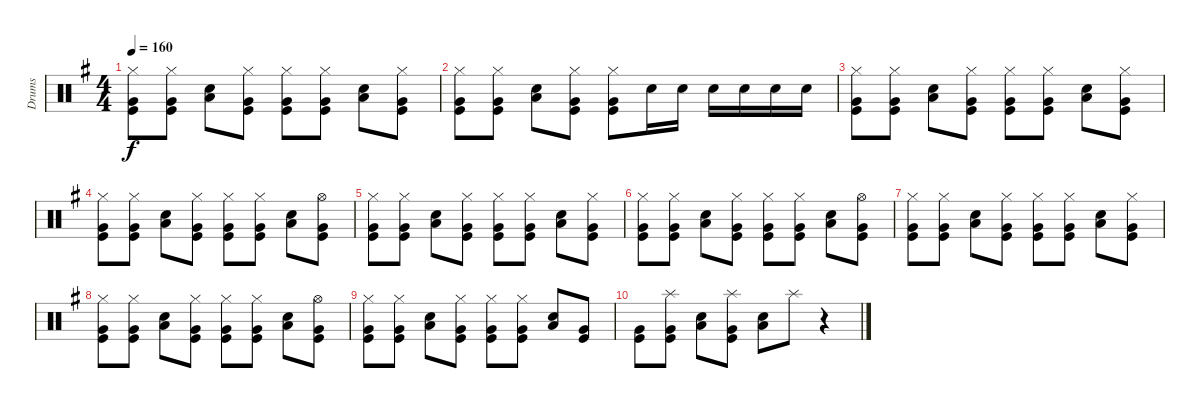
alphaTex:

\track ("Drums" "Drums") {instrument percussion}
\staff {score}
\articulation defaults
\ts (4 4)
\tempo 160
\clef neutral
\ks g
("Hi-Hat (closed)" "Very Low Tom (hit)" "Kick (hit)").8{dy f} ("Hi-Hat (closed)" "Very Low Tom (hit)" "Kick (hit)").8 ("Snare (hit) 2" "Low Tom (hit)").8 ("Hi-Hat (closed)" "Very Low Tom (hit)" "Kick (hit)").8 ("Hi-Hat (closed)" "Very Low Tom (hit)" "Kick (hit)").8 ("Hi-Hat (closed)" "Very Low Tom (hit)" "Kick (hit)").8 ("Snare (hit) 2" "Low Tom (hit)").8 ("Hi-Hat (closed)" "Very Low Tom (hit)" "Kick (hit)").8 |
("Hi-Hat (closed)" "Very Low Tom (hit)" "Kick (hit)").8 ("Hi-Hat (closed)" "Very Low Tom (hit)" "Kick (hit)").8 ("Snare (hit) 2" "Low Tom (hit)").8 ("Hi-Hat (closed)" "Very Low Tom (hit)" "Kick (hit)").8 ("Hi-Hat (closed)" "Very Low Tom (hit)" "Kick (hit)").8 "Snare (hit) 2".16 "Snare (hit) 2".16 "Snare (hit) 2".16 "Snare (hit) 2".16 "Snare (hit) 2".16 "Snare (hit) 2".16 |
("Hi-Hat (closed)" "Very Low Tom (hit)" "Kick (hit)").8 ("Hi-Hat (closed)" "Very Low Tom (hit)" "Kick (hit)").8 ("Snare (hit) 2" "Low Tom (hit)").8 ("Hi-Hat (closed)" "Very Low Tom (hit)" "Kick (hit)").8 ("Hi-Hat (closed)" "Very Low Tom (hit)" "Kick (hit)").8 ("Hi-Hat (closed)" "Very Low Tom (hit)" "Kick (hit)").8 ("Snare (hit) 2" "Low Tom (hit)").8 ("Hi-Hat (closed)" "Very Low Tom (hit)" "Kick (hit)").8 |
("Hi-Hat (closed)" "Very Low Tom (hit)" "Kick (hit)").8 ("Hi-Hat (closed)" "Very Low Tom (hit)" "Kick (hit)").8 ("Snare (hit) 2" "Low Tom (hit)").8 ("Hi-Hat (closed)" "Very Low Tom (hit)" "Kick (hit)").8 ("Hi-Hat (closed)" "Very Low Tom (hit)" "Kick (hit)").8 ("Hi-Hat (closed)" "Very Low Tom (hit)" "Kick (hit)").8 ("Snare (hit) 2" "Low Tom (hit)").8 ("Hi-Hat (open)" "Very Low Tom (hit)" "Kick (hit)").8 |
("Hi-Hat (closed)" "Very Low Tom (hit)" "Kick (hit)").8 ("Hi-Hat (closed)" "Very Low Tom (hit)" "Kick (hit)").8 ("Snare (hit) 2" "Low Tom (hit)").8 ("Hi-Hat (closed)" "Very Low Tom (hit)" "Kick (hit)").8 ("Hi-Hat (closed)" "Very Low Tom (hit)" "Kick (hit)").8 ("Hi-Hat (closed)" "Very Low Tom (hit)" "Kick (hit)").8 ("Snare (hit) 2" "Low Tom (hit)").8 ("Hi-Hat (closed)" "Very Low Tom (hit)" "Kick (hit)").8 |
("Hi-Hat (closed)" "Very Low Tom (hit)" "Kick (hit)").8 ("Hi-Hat (closed)" "Very Low Tom (hit)" "Kick (hit)").8 ("Snare (hit) 2" "Low Tom (hit)").8 ("Hi-Hat (closed)" "Very Low Tom (hit)" "Kick (hit)").8 ("Hi-Hat (closed)" "Very Low Tom (hit)" "Kick (hit)").8 ("Hi-Hat (closed)" "Very Low Tom (hit)" "Kick (hit)").8 ("Snare (hit) 2" "Low Tom (hit)").8 ("Hi-Hat (open)" "Very Low Tom (hit)" "Kick (hit)").8 |
("Hi-Hat (closed)" "Very Low Tom (hit)" "Kick (hit)").8 ("Hi-Hat (closed)" "Very Low Tom (hit)" "Kick (hit)").8 ("Snare (hit) 2" "Low Tom (hit)").8 ("Hi-Hat (closed)" "Very Low Tom (hit)" "Kick (hit)").8 ("Hi-Hat (closed)" "Very Low Tom (hit)" "Kick (hit)").8 ("Hi-Hat (closed)" "Very Low Tom (hit)" "Kick (hit)").8 ("Snare (hit) 2" "Low Tom (hit)").8 ("Hi-Hat (closed)" "Very Low Tom (hit)" "Kick (hit)").8 |
("Hi-Hat (closed)" "Very Low Tom (hit)" "Kick (hit)").8 ("Hi-Hat (closed)" "Very Low Tom (hit)" "Kick (hit)").8 ("Snare (hit) 2" "Low Tom (hit)").8 ("Hi-Hat (closed)" "Very Low Tom (hit)" "Kick (hit)").8 ("Hi-Hat (closed)" "Very Low Tom (hit)" "Kick (hit)").8 ("Hi-Hat (closed)" "Very Low Tom (hit)" "Kick (hit)").8 ("Snare (hit) 2" "Low Tom (hit)").8 ("Hi-Hat (open)" "Very Low Tom (hit)" "Kick (hit)").8 |
("Hi-Hat (closed)" "Very Low Tom (hit)" "Kick (hit)").8 ("Hi-Hat (closed)" "Very Low Tom (hit)" "Kick (hit)").8 ("Snare (hit) 2" "Low Tom (hit)").8 ("Hi-Hat (closed)" "Very Low Tom (hit)" "Kick (hit)").8 ("Hi-Hat (closed)" "Very Low Tom (hit)" "Kick (hit)").8 ("Hi-Hat (closed)" "Very Low Tom (hit)" "Kick (hit)").8 ("Snare (hit) 2" "Low Tom (hit)").8 ("Very Low Tom (hit)" "Kick (hit)").8 |
("Very Low Tom (hit)" "Kick (hit)").8 ("Splash (hit)" "Very Low Tom (hit)" "Kick (hit)").8 ("Snare (hit) 2" "Low Tom (hit)").8 ("Splash (hit)" "Very Low Tom (hit)" "Kick (hit)").8 ("Snare (hit) 2" "Low Tom (hit)").8 "Splash (hit)".8 r.4
